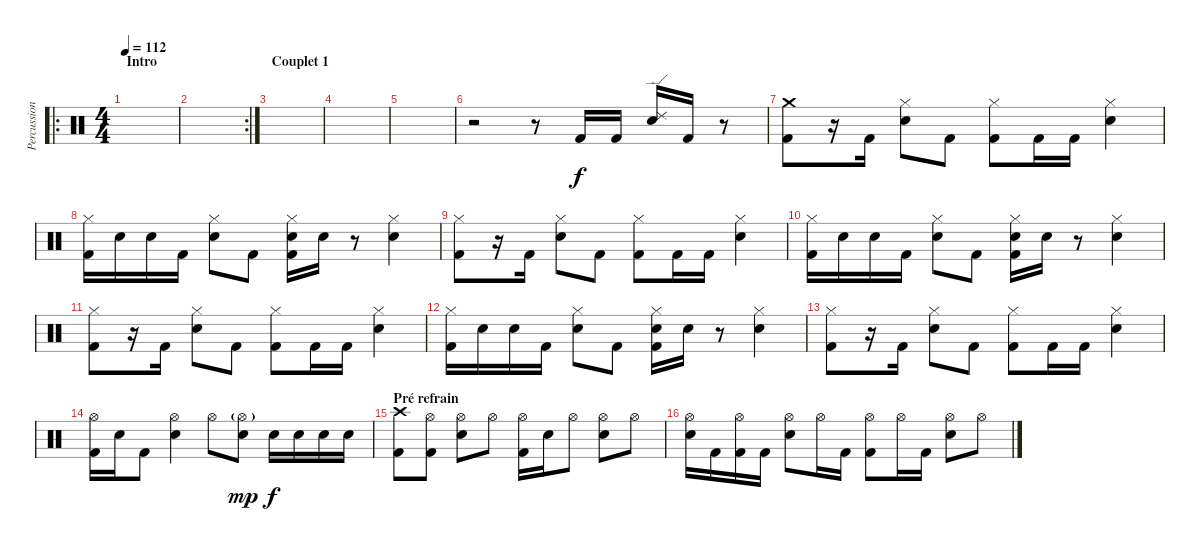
\track ("Percussions" "Percussion") {instrument percussion}
\staff {score}
\articulation defaults
\ro
\ts (4 4)
\section ("" "Intro")
\tempo 112
\clef neutral
\ks c
|
\rc 2
|
\section ("" "Couplet 1")
|
|
|
r.2 r.8 "Kick (hit) 2".16 "Kick (hit) 2".16 ("Ride (edge) 2" "Electric Snare (hit)").16 "Kick (hit) 2".16 r.8 |
("Crash medium (hit)" "Kick (hit) 2").8 r.16 "Kick (hit) 2".16 ("Hi-Hat (closed)" "Electric Snare (hit)").8 "Kick (hit) 2".8 ("Hi-Hat (closed)" "Kick (hit) 2").8 "Kick (hit) 2".16 "Kick (hit) 2".16 ("Hi-Hat (closed)" "Electric Snare (hit)").4 |
("Hi-Hat (closed)" "Kick (hit) 2").16 "Electric Snare (hit)".16 "Electric Snare (hit)".16 "Kick (hit) 2".16 ("Hi-Hat (closed)" "Electric Snare (hit)").8 "Kick (hit) 2".8 ("Hi-Hat (closed)" "Electric Snare (hit)" "Kick (hit) 2").16 "Electric Snare (hit)".16 r.8 ("Hi-Hat (closed)" "Electric Snare (hit)").4 |
("Hi-Hat (closed)" "Kick (hit) 2").8 r.16 "Kick (hit) 2".16 ("Hi-Hat (closed)" "Electric Snare (hit)").8 "Kick (hit) 2".8 ("Hi-Hat (closed)" "Kick (hit) 2").8 "Kick (hit) 2".16 "Kick (hit) 2".16 ("Hi-Hat (closed)" "Electric Snare (hit)").4 |
("Hi-Hat (closed)" "Kick (hit) 2").16 "Electric Snare (hit)".16 "Electric Snare (hit)".16 "Kick (hit) 2".16 ("Hi-Hat (closed)" "Electric Snare (hit)").8 "Kick (hit) 2".8 ("Hi-Hat (closed)" "Electric Snare (hit)" "Kick (hit) 2").16 "Electric Snare (hit)".16 r.8 ("Hi-Hat (closed)" "Electric Snare (hit)").4 |
("Hi-Hat (closed)" "Kick (hit) 2").8 r.16 "Kick (hit) 2".16 ("Hi-Hat (closed)" "Electric Snare (hit)").8 "Kick (hit) 2".8 ("Hi-Hat (closed)" "Kick (hit) 2").8 "Kick (hit) 2".16 "Kick (hit) 2".16 ("Hi-Hat (closed)" "Electric Snare (hit)").4 |
("Hi-Hat (closed)" "Kick (hit) 2").16 "Electric Snare (hit)".16 "Electric Snare (hit)".16 "Kick (hit) 2".16 ("Hi-Hat (closed)" "Electric Snare (hit)").8 "Kick (hit) 2".8 ("Hi-Hat (closed)" "Electric Snare (hit)" "Kick (hit) 2").16 "Electric Snare (hit)".16 r.8 ("Hi-Hat (closed)" "Electric Snare (hit)").4 |
("Hi-Hat (closed)" "Kick (hit) 2").8 r.16 "Kick (hit) 2".16 ("Hi-Hat (closed)" "Electric Snare (hit)").8 "Kick (hit) 2".8 ("Hi-Hat (closed)" "Kick (hit) 2").8 "Kick (hit) 2".16 "Kick (hit) 2".16 ("Hi-Hat (closed)" "Electric Snare (hit)").4 |
("Hi-Hat (open)" "Kick (hit) 2").16 "Electric Snare (hit)".16 "Kick (hit) 2".8 ("Hi-Hat (open)" "Electric Snare (hit)").4 "Hi-Hat (open)".8 ("Hi-Hat (open)"{g} "Electric Snare (hit)").8{dy mp} "Electric Snare (hit)".16{dy f} "Electric Snare (hit)".16 "Electric Snare (hit)".16 "Electric Snare (hit)".16 |
\section ("" "Pré refrain")
("Crash high (hit)" "Kick (hit) 2").8 ("Hi-Hat (open)" "Kick (hit) 2").8 ("Hi-Hat (open)" "Electric Snare (hit)").8 "Hi-Hat (open)".8 ("Hi-Hat (open)" "Kick (hit) 2").16 "Electric Snare (hit)".16 "Hi-Hat (open)".8 ("Hi-Hat (open)" "Electric Snare (hit)").8 "Hi-Hat (open)".8 |
("Hi-Hat (open)" "Electric Snare (hit)").16 "Kick (hit) 2".16 ("Hi-Hat (open)" "Kick (hit) 2").16 "Kick (hit) 2".16 ("Hi-Hat (open)" "Electric Snare (hit)").8 "Hi-Hat (open)".16 "Kick (hit) 2".16 ("Hi-Hat (open)" "Kick (hit) 2").8 "Hi-Hat (open)".16 "Kick (hit) 2".16 ("Hi-Hat (open)" "Electric Snare (hit)").8 "Hi-Hat (open)".8
